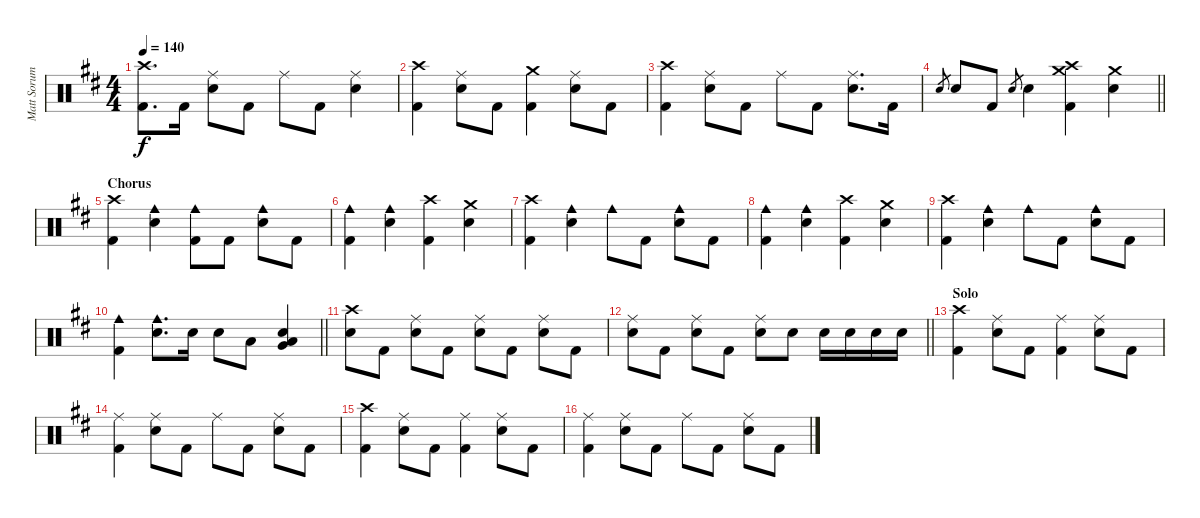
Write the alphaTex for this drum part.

\track ("Matt Sorum - Drums" "Matt Sorum") {instrument percussion}
\staff {score}
\articulation defaults
\ts (4 4)
\tempo 140
\clef neutral
\ks d
("Crash high (hit)" "Kick (hit) 2").8{d dy f} "Kick (hit) 2".16 ("Ride (middle)" "Snare (hit) 2").8 "Kick (hit) 2".8 "Ride (middle)".8 "Kick (hit) 2".8 ("Ride (middle)" "Snare (hit) 2").4 |
("Crash high (hit)" "Kick (hit) 2").4 ("Ride (middle)" "Snare (hit) 2").8 "Kick (hit) 2".8 ("Crash medium (hit)" "Kick (hit) 2").4 ("Ride (middle)" "Snare (hit) 2").8 "Kick (hit) 2".8 |
("Crash high (hit)" "Kick (hit) 2").4 ("Ride (middle)" "Snare (hit) 2").8 "Kick (hit) 2".8 "Ride (middle)".8 "Kick (hit) 2".8 ("Ride (middle)" "Snare (hit) 2").8{d} "Kick (hit) 2".16 |
\barLineRight lightlight "Snare (hit) 2".8{gr} "Snare (hit) 2".8 "Kick (hit) 2".8 "Snare (hit) 2".8{gr} "Snare (hit) 2".4
("Crash medium (hit)" "Crash high (hit)" "Kick (hit) 2").4 ("Crash medium (hit)" "Snare (hit) 2").4 |
\section ("" "Chorus")
("Crash high (hit)" "Kick (hit) 2").4 ("Cowbell medium (hit)" "Snare (hit) 2").4 ("Cowbell medium (hit)" "Kick (hit) 2").8 "Kick (hit) 2".8 ("Cowbell medium (hit)" "Snare (hit) 2").8 "Kick (hit) 2".8 |
("Cowbell medium (hit)" "Kick (hit) 2").4 ("Cowbell medium (hit)" "Snare (hit) 2").4 ("Crash high (hit)" "Kick (hit) 2").4 ("Crash medium (hit)" "Snare (hit) 2").4 |
("Crash high (hit)" "Kick (hit) 2").4 ("Cowbell medium (hit)" "Snare (hit) 2").4 "Cowbell medium (hit)".8 "Kick (hit) 2".8 ("Cowbell medium (hit)" "Snare (hit) 2").8 "Kick (hit) 2".8 |
("Cowbell medium (hit)" "Kick (hit) 2").4 ("Cowbell medium (hit)" "Snare (hit) 2").4 ("Crash high (hit)" "Kick (hit) 2").4 ("Crash medium (hit)" "Snare (hit) 2").4 |
("Crash high (hit)" "Kick (hit) 2").4 ("Cowbell medium (hit)" "Snare (hit) 2").4 "Cowbell medium (hit)".8 "Kick (hit) 2".8 ("Cowbell medium (hit)" "Snare (hit) 2").8 "Kick (hit) 2".8 |
\barLineRight lightlight
("Cowbell medium (hit)" "Kick (hit) 2").4 ("Cowbell medium (hit)" "Snare (hit) 2").8{d} "Snare (hit) 2".16 "Snare (hit) 2".8 "Low Tom (hit)".8 ("Very Low Tom (hit)" "Low Tom (hit)" "Snare (hit) 2").4 |
("Crash high (hit)" "Snare (hit) 2").8 "Kick (hit) 2".8 ("Ride (middle)" "Snare (hit) 2").8 "Kick (hit) 2".8 ("Ride (middle)" "Snare (hit) 2").8 "Kick (hit) 2".8 ("Ride (middle)" "Snare (hit) 2").8 "Kick (hit) 2".8 |
\barLineRight lightlight
("Ride (middle)" "Snare (hit) 2").8 "Kick (hit) 2".8 ("Ride (middle)" "Snare (hit) 2").8 "Kick (hit) 2".8 ("Ride (middle)" "Snare (hit) 2").8 "Snare (hit) 2".8 "Snare (hit) 2".16 "Snare (hit) 2".16 "Snare (hit) 2".16 "Snare (hit) 2".16 |
\section ("" "Solo")
("Crash high (hit)" "Kick (hit) 2").4 ("Ride (middle)" "Snare (hit) 2").8 "Kick (hit) 2".8 ("Ride (middle)" "Kick (hit) 2").4 ("Ride (middle)" "Snare (hit) 2").8 "Kick (hit) 2".8 |
("Ride (middle)" "Kick (hit) 2").4 ("Ride (middle)" "Snare (hit) 2").8 "Kick (hit) 2".8 "Ride (middle)".8 "Kick (hit) 2".8 ("Ride (middle)" "Snare (hit) 2").8 "Kick (hit) 2".8 |
("Crash high (hit)" "Kick (hit) 2").4 ("Ride (middle)" "Snare (hit) 2").8 "Kick (hit) 2".8 ("Ride (middle)" "Kick (hit) 2").4 ("Ride (middle)" "Snare (hit) 2").8 "Kick (hit) 2".8 |
("Ride (middle)" "Kick (hit) 2").4 ("Ride (middle)" "Snare (hit) 2").8 "Kick (hit) 2".8 "Ride (middle)".8 "Kick (hit) 2".8 ("Ride (middle)" "Snare (hit) 2").8 "Kick (hit) 2".8
